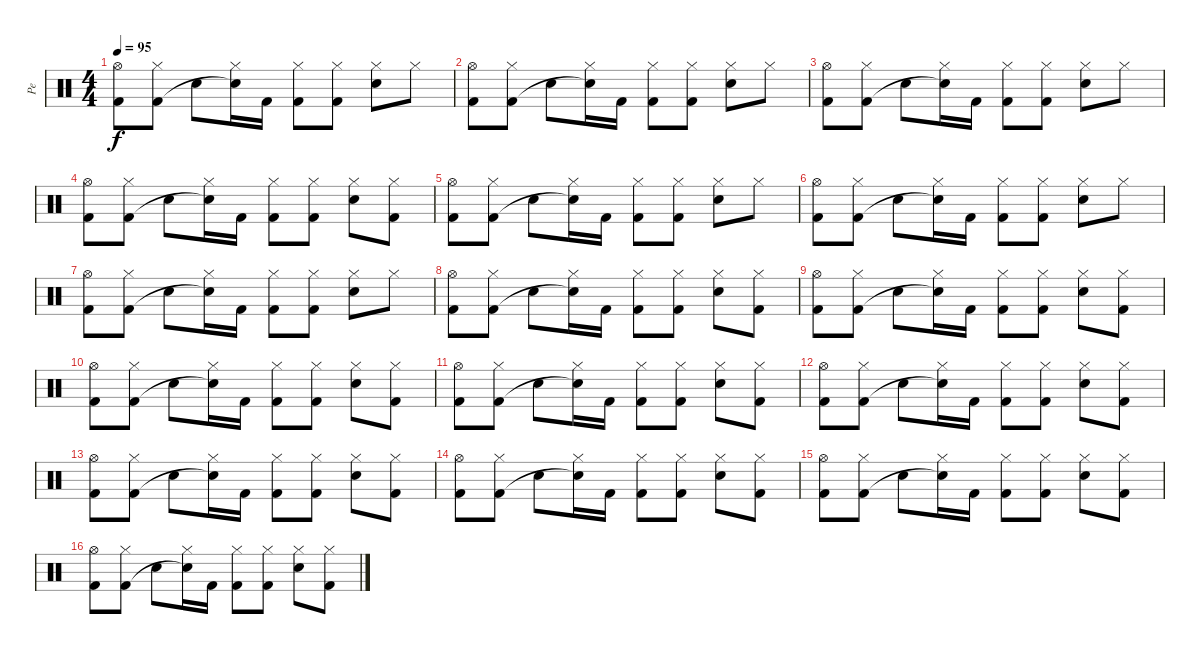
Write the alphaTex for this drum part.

\track ("Pe" "Pe") {instrument percussion}
\staff {score}
\articulation defaults
\ts (4 4)
\tempo 95
\clef neutral
\ks c
("Hi-Hat (open)" "Kick (hit) 2").8{dy f volume 8} ("Hi-Hat (closed)" "Kick (hit) 2").8 "Electric Snare (hit)".8 ("Hi-Hat (closed)" "Snare (hit)"{t}).16 "Kick (hit) 2".16 ("Hi-Hat (closed)" "Kick (hit) 2").8 ("Hi-Hat (closed)" "Kick (hit) 2").8 ("Hi-Hat (closed)" "Electric Snare (hit)").8 "Hi-Hat (closed)".8 |
("Hi-Hat (open)" "Kick (hit) 2").8 ("Hi-Hat (closed)" "Kick (hit) 2").8 "Electric Snare (hit)".8 ("Hi-Hat (closed)" "Snare (hit)"{t}).16 "Kick (hit) 2".16 ("Hi-Hat (closed)" "Kick (hit) 2").8 ("Hi-Hat (closed)" "Kick (hit) 2").8 ("Hi-Hat (closed)" "Electric Snare (hit)").8 "Hi-Hat (closed)".8 |
("Hi-Hat (open)" "Kick (hit) 2").8 ("Hi-Hat (closed)" "Kick (hit) 2").8 "Electric Snare (hit)".8 ("Hi-Hat (closed)" "Snare (hit)"{t}).16 "Kick (hit) 2".16 ("Hi-Hat (closed)" "Kick (hit) 2").8 ("Hi-Hat (closed)" "Kick (hit) 2").8 ("Hi-Hat (closed)" "Electric Snare (hit)").8 "Hi-Hat (closed)".8 |
("Hi-Hat (open)" "Kick (hit) 2").8 ("Hi-Hat (closed)" "Kick (hit) 2").8 "Electric Snare (hit)".8 ("Hi-Hat (closed)" "Snare (hit)"{t}).16 "Kick (hit) 2".16 ("Hi-Hat (closed)" "Kick (hit) 2").8 ("Hi-Hat (closed)" "Kick (hit) 2").8 ("Hi-Hat (closed)" "Electric Snare (hit)").8 ("Hi-Hat (closed)" "Kick (hit) 2").8 |
("Hi-Hat (open)" "Kick (hit) 2").8 ("Hi-Hat (closed)" "Kick (hit) 2").8 "Electric Snare (hit)".8 ("Hi-Hat (closed)" "Snare (hit)"{t}).16 "Kick (hit) 2".16 ("Hi-Hat (closed)" "Kick (hit) 2").8 ("Hi-Hat (closed)" "Kick (hit) 2").8 ("Hi-Hat (closed)" "Electric Snare (hit)").8 "Hi-Hat (closed)".8 |
("Hi-Hat (open)" "Kick (hit) 2").8 ("Hi-Hat (closed)" "Kick (hit) 2").8 "Electric Snare (hit)".8 ("Hi-Hat (closed)" "Snare (hit)"{t}).16 "Kick (hit) 2".16 ("Hi-Hat (closed)" "Kick (hit) 2").8 ("Hi-Hat (closed)" "Kick (hit) 2").8 ("Hi-Hat (closed)" "Electric Snare (hit)").8 "Hi-Hat (closed)".8 |
("Hi-Hat (open)" "Kick (hit) 2").8 ("Hi-Hat (closed)" "Kick (hit) 2").8 "Electric Snare (hit)".8 ("Hi-Hat (closed)" "Snare (hit)"{t}).16 "Kick (hit) 2".16 ("Hi-Hat (closed)" "Kick (hit) 2").8 ("Hi-Hat (closed)" "Kick (hit) 2").8 ("Hi-Hat (closed)" "Electric Snare (hit)").8 "Hi-Hat (closed)".8 |
("Hi-Hat (open)" "Kick (hit) 2").8 ("Hi-Hat (closed)" "Kick (hit) 2").8 "Electric Snare (hit)".8 ("Hi-Hat (closed)" "Snare (hit)"{t}).16 "Kick (hit) 2".16 ("Hi-Hat (closed)" "Kick (hit) 2").8 ("Hi-Hat (closed)" "Kick (hit) 2").8 ("Hi-Hat (closed)" "Electric Snare (hit)").8 ("Hi-Hat (closed)" "Kick (hit) 2").8 |
("Hi-Hat (open)" "Kick (hit) 2").8 ("Hi-Hat (closed)" "Kick (hit) 2").8 "Electric Snare (hit)".8 ("Hi-Hat (closed)" "Snare (hit)"{t}).16 "Kick (hit) 2".16 ("Hi-Hat (closed)" "Kick (hit) 2").8 ("Hi-Hat (closed)" "Kick (hit) 2").8 ("Hi-Hat (closed)" "Electric Snare (hit)").8 ("Hi-Hat (closed)" "Kick (hit) 2").8 |
("Hi-Hat (open)" "Kick (hit) 2").8 ("Hi-Hat (closed)" "Kick (hit) 2").8 "Electric Snare (hit)".8 ("Hi-Hat (closed)" "Snare (hit)"{t}).16 "Kick (hit) 2".16 ("Hi-Hat (closed)" "Kick (hit) 2").8 ("Hi-Hat (closed)" "Kick (hit) 2").8 ("Hi-Hat (closed)" "Electric Snare (hit)").8 ("Hi-Hat (closed)" "Kick (hit) 2").8 |
("Hi-Hat (open)" "Kick (hit) 2").8 ("Hi-Hat (closed)" "Kick (hit) 2").8 "Electric Snare (hit)".8 ("Hi-Hat (closed)" "Snare (hit)"{t}).16 "Kick (hit) 2".16 ("Hi-Hat (closed)" "Kick (hit) 2").8 ("Hi-Hat (closed)" "Kick (hit) 2").8 ("Hi-Hat (closed)" "Electric Snare (hit)").8 ("Hi-Hat (closed)" "Kick (hit) 2").8 |
("Hi-Hat (open)" "Kick (hit) 2").8 ("Hi-Hat (closed)" "Kick (hit) 2").8 "Electric Snare (hit)".8 ("Hi-Hat (closed)" "Snare (hit)"{t}).16 "Kick (hit) 2".16 ("Hi-Hat (closed)" "Kick (hit) 2").8 ("Hi-Hat (closed)" "Kick (hit) 2").8 ("Hi-Hat (closed)" "Electric Snare (hit)").8 ("Hi-Hat (closed)" "Kick (hit) 2").8 |
("Hi-Hat (open)" "Kick (hit) 2").8 ("Hi-Hat (closed)" "Kick (hit) 2").8 "Electric Snare (hit)".8 ("Hi-Hat (closed)" "Snare (hit)"{t}).16 "Kick (hit) 2".16 ("Hi-Hat (closed)" "Kick (hit) 2").8 ("Hi-Hat (closed)" "Kick (hit) 2").8 ("Hi-Hat (closed)" "Electric Snare (hit)").8 ("Hi-Hat (closed)" "Kick (hit) 2").8 |
("Hi-Hat (open)" "Kick (hit) 2").8 ("Hi-Hat (closed)" "Kick (hit) 2").8 "Electric Snare (hit)".8 ("Hi-Hat (closed)" "Snare (hit)"{t}).16 "Kick (hit) 2".16 ("Hi-Hat (closed)" "Kick (hit) 2").8 ("Hi-Hat (closed)" "Kick (hit) 2").8 ("Hi-Hat (closed)" "Electric Snare (hit)").8 ("Hi-Hat (closed)" "Kick (hit) 2").8 |
("Hi-Hat (open)" "Kick (hit) 2").8 ("Hi-Hat (closed)" "Kick (hit) 2").8 "Electric Snare (hit)".8 ("Hi-Hat (closed)" "Snare (hit)"{t}).16 "Kick (hit) 2".16 ("Hi-Hat (closed)" "Kick (hit) 2").8 ("Hi-Hat (closed)" "Kick (hit) 2").8 ("Hi-Hat (closed)" "Electric Snare (hit)").8 ("Hi-Hat (closed)" "Kick (hit) 2").8 |
("Hi-Hat (open)" "Kick (hit) 2").8 ("Hi-Hat (closed)" "Kick (hit) 2").8 "Electric Snare (hit)".8 ("Hi-Hat (closed)" "Snare (hit)"{t}).16 "Kick (hit) 2".16 ("Hi-Hat (closed)" "Kick (hit) 2").8 ("Hi-Hat (closed)" "Kick (hit) 2").8 ("Hi-Hat (closed)" "Electric Snare (hit)").8 ("Hi-Hat (closed)" "Kick (hit) 2").8
